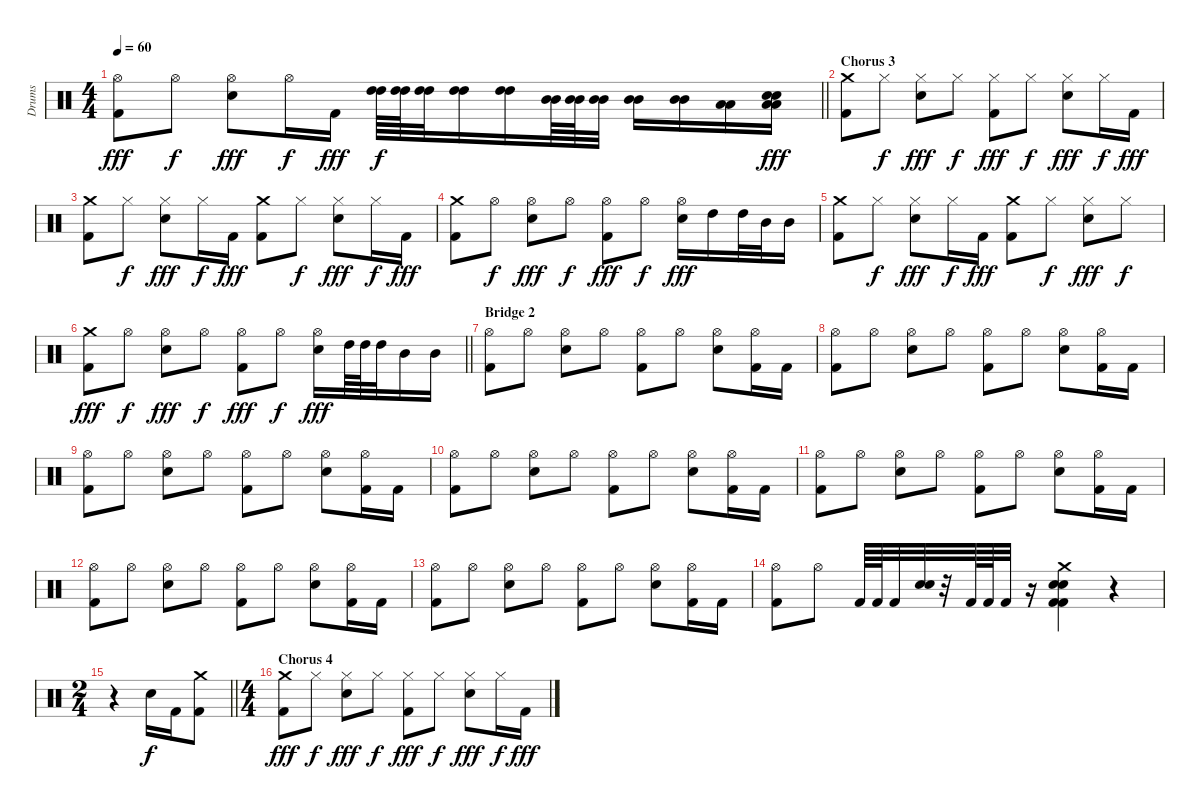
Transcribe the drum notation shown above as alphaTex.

\track ("Drums" "Drums") {instrument percussion}
\staff {score}
\articulation defaults
\ts (4 4)
\tempo 60
\clef neutral
\barLineRight lightlight
\ks c
("Hi-Hat (open)" "Kick (hit) 2").8{dy fff} "Hi-Hat (open)".8{dy f} ("Hi-Hat (open)" "Snare (hit) 2").8{dy fff} "Hi-Hat (open)".16{dy f} "Kick (hit) 2".16{dy fff} ("High Tom (hit)" "High Tom (hit)").64{dy f} ("High Tom (hit)" "High Tom (hit)").64 ("High Tom (hit)" "High Tom (hit)").32 ("High Tom (hit)" "High Tom (hit)").16 ("High Tom (hit)" "High Tom (hit)").16 ("Mid Tom (hit)" "Mid Tom (hit)").64 ("Mid Tom (hit)" "Mid Tom (hit)").64 ("Mid Tom (hit)" "Mid Tom (hit)").32 ("Mid Tom (hit)" "Mid Tom (hit)").16 ("Mid Tom (hit)" "Mid Tom (hit)").16 ("Low Floor Tom (hit)" "Low Floor Tom (hit)").16 ("Low Floor Tom (hit)" "Low Floor Tom (hit)" "Snare (hit) 2" "Snare (hit) 2").16{dy fff} |
\section ("" "Chorus 3")
("Crash medium (hit)" "Kick (hit) 2").8 "Hi-Hat (closed)".8{dy f} ("Hi-Hat (closed)" "Snare (hit) 2").8{dy fff} "Hi-Hat (closed)".8{dy f} ("Hi-Hat (closed)" "Kick (hit) 2").8{dy fff} "Hi-Hat (closed)".8{dy f} ("Hi-Hat (closed)" "Snare (hit) 2").8{dy fff} "Hi-Hat (closed)".16{dy f} "Kick (hit) 2".16{dy fff} |
("Crash medium (hit)" "Kick (hit) 2").8 "Hi-Hat (closed)".8{dy f} ("Hi-Hat (closed)" "Snare (hit) 2").8{dy fff} "Hi-Hat (closed)".16{dy f} "Kick (hit) 2".16{dy fff} ("Crash medium (hit)" "Kick (hit) 2").8 "Hi-Hat (closed)".8{dy f} ("Hi-Hat (closed)" "Snare (hit) 2").8{dy fff} "Hi-Hat (closed)".16{dy f} "Kick (hit) 2".16{dy fff} |
("Crash medium (hit)" "Kick (hit) 2").8 "Hi-Hat (open)".8{dy f} ("Hi-Hat (open)" "Snare (hit) 2").8{dy fff} "Hi-Hat (open)".8{dy f} ("Hi-Hat (open)" "Kick (hit) 2").8{dy fff} "Hi-Hat (open)".8{dy f} ("Hi-Hat (open)" "Snare (hit) 2").16{dy fff} "High Tom (hit)".16 "High Tom (hit)".32 "Mid Tom (hit)".32 "Mid Tom (hit)".16 |
("Crash medium (hit)" "Kick (hit) 2").8 "Hi-Hat (closed)".8{dy f} ("Hi-Hat (closed)" "Snare (hit) 2").8{dy fff} "Hi-Hat (closed)".16{dy f} "Kick (hit) 2".16{dy fff} ("Crash medium (hit)" "Kick (hit) 2").8 "Hi-Hat (closed)".8{dy f} ("Hi-Hat (closed)" "Snare (hit) 2").8{dy fff} "Hi-Hat (closed)".8{dy f} |
\barLineRight lightlight
("Crash medium (hit)" "Kick (hit) 2").8{dy fff} "Hi-Hat (open)".8{dy f} ("Hi-Hat (open)" "Snare (hit) 2").8{dy fff} "Hi-Hat (open)".8{dy f} ("Hi-Hat (open)" "Kick (hit) 2").8{dy fff} "Hi-Hat (open)".8{dy f} ("Hi-Hat (open)" "Snare (hit) 2").16{dy fff} "High Tom (hit)".64 "High Tom (hit)".64 "High Tom (hit)".32 "Mid Tom (hit)".16 "Mid Tom (hit)".16 |
\section ("" "Bridge 2")
("Hi-Hat (open)" "Kick (hit) 2").8 "Hi-Hat (open)".8 ("Hi-Hat (open)" "Snare (hit) 2").8 "Hi-Hat (open)".8 ("Hi-Hat (open)" "Kick (hit) 2").8 "Hi-Hat (open)".8 ("Hi-Hat (open)" "Snare (hit) 2").8 ("Hi-Hat (open)" "Kick (hit) 2").16 "Kick (hit) 2".16 |
("Hi-Hat (open)" "Kick (hit) 2").8 "Hi-Hat (open)".8 ("Hi-Hat (open)" "Snare (hit) 2").8 "Hi-Hat (open)".8 ("Hi-Hat (open)" "Kick (hit) 2").8 "Hi-Hat (open)".8 ("Hi-Hat (open)" "Snare (hit) 2").8 ("Hi-Hat (open)" "Kick (hit) 2").16 "Kick (hit) 2".16 |
("Hi-Hat (open)" "Kick (hit) 2").8 "Hi-Hat (open)".8 ("Hi-Hat (open)" "Snare (hit) 2").8 "Hi-Hat (open)".8 ("Hi-Hat (open)" "Kick (hit) 2").8 "Hi-Hat (open)".8 ("Hi-Hat (open)" "Snare (hit) 2").8 ("Hi-Hat (open)" "Kick (hit) 2").16 "Kick (hit) 2".16 |
("Hi-Hat (open)" "Kick (hit) 2").8 "Hi-Hat (open)".8 ("Hi-Hat (open)" "Snare (hit) 2").8 "Hi-Hat (open)".8 ("Hi-Hat (open)" "Kick (hit) 2").8 "Hi-Hat (open)".8 ("Hi-Hat (open)" "Snare (hit) 2").8 ("Hi-Hat (open)" "Kick (hit) 2").16 "Kick (hit) 2".16 |
("Hi-Hat (open)" "Kick (hit) 2").8 "Hi-Hat (open)".8 ("Hi-Hat (open)" "Snare (hit) 2").8 "Hi-Hat (open)".8 ("Hi-Hat (open)" "Kick (hit) 2").8 "Hi-Hat (open)".8 ("Hi-Hat (open)" "Snare (hit) 2").8 ("Hi-Hat (open)" "Kick (hit) 2").16 "Kick (hit) 2".16 |
("Hi-Hat (open)" "Kick (hit) 2").8 "Hi-Hat (open)".8 ("Hi-Hat (open)" "Snare (hit) 2").8 "Hi-Hat (open)".8 ("Hi-Hat (open)" "Kick (hit) 2").8 "Hi-Hat (open)".8 ("Hi-Hat (open)" "Snare (hit) 2").8 ("Hi-Hat (open)" "Kick (hit) 2").16 "Kick (hit) 2".16 |
("Hi-Hat (open)" "Kick (hit) 2").8 "Hi-Hat (open)".8 ("Hi-Hat (open)" "Snare (hit) 2").8 "Hi-Hat (open)".8 ("Hi-Hat (open)" "Kick (hit) 2").8 "Hi-Hat (open)".8 ("Hi-Hat (open)" "Snare (hit) 2").8 ("Hi-Hat (open)" "Kick (hit) 2").16 "Kick (hit) 2".16 |
("Hi-Hat (open)" "Kick (hit) 2").8 "Hi-Hat (open)".8 "Kick (hit) 2".64 "Kick (hit) 2".64 "Kick (hit) 2".32 ("Snare (hit) 2" "Snare (hit) 2").32 r.32 "Kick (hit) 2".64 "Kick (hit) 2".64 "Kick (hit) 2".32 r.16 ("Crash medium (hit)" "Snare (hit) 2" "Snare (hit) 2" "Kick (hit) 2" "Kick (hit) 2").4 r.4 |
\ts (2 4)
\barLineRight lightlight
r.4 "Snare (hit) 2".16{dy f} "Kick (hit) 2".16 ("Crash medium (hit)" "Kick (hit) 2").8 |
\ts (4 4)
\section ("" "Chorus 4")
("Crash medium (hit)" "Kick (hit) 2").8{dy fff} "Hi-Hat (closed)".8{dy f} ("Hi-Hat (closed)" "Snare (hit) 2").8{dy fff} "Hi-Hat (closed)".8{dy f} ("Hi-Hat (closed)" "Kick (hit) 2").8{dy fff} "Hi-Hat (closed)".8{dy f} ("Hi-Hat (closed)" "Snare (hit) 2").8{dy fff} "Hi-Hat (closed)".16{dy f} "Kick (hit) 2".16{dy fff}
